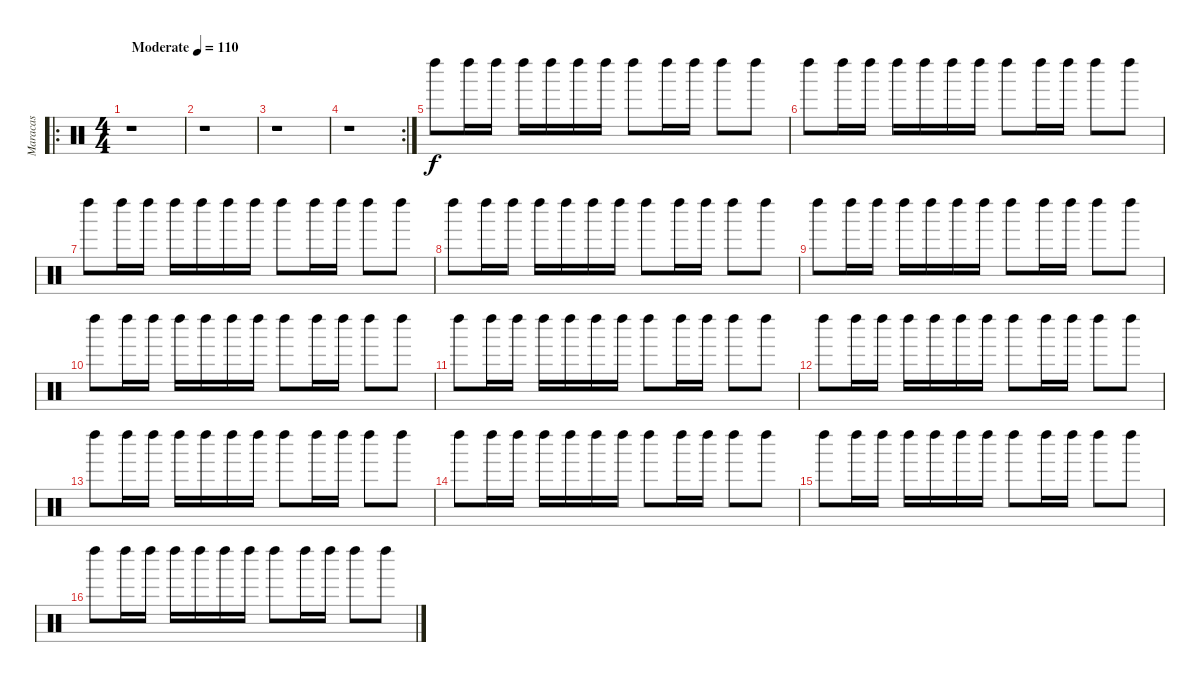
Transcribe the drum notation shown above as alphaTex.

\track ("Maracas" "Maracas") {instrument percussion}
\staff {score}
\articulation defaults
\ro
\ts (4 4)
\tempo (110 "Moderate")
\clef neutral
\ks c
r.1{dy f} |
r.1 |
r.1 |
\rc 2
r.1 |
"Left Maraca (hit)".8 "Left Maraca (hit)".16 "Left Maraca (hit)".16 "Left Maraca (hit)".16 "Left Maraca (hit)".16 "Left Maraca (hit)".16 "Left Maraca (hit)".16 "Left Maraca (hit)".8 "Left Maraca (hit)".16 "Left Maraca (hit)".16 "Left Maraca (hit)".8 "Left Maraca (hit)".8 |
"Left Maraca (hit)".8 "Left Maraca (hit)".16 "Left Maraca (hit)".16 "Left Maraca (hit)".16 "Left Maraca (hit)".16 "Left Maraca (hit)".16 "Left Maraca (hit)".16 "Left Maraca (hit)".8 "Left Maraca (hit)".16 "Left Maraca (hit)".16 "Left Maraca (hit)".8 "Left Maraca (hit)".8 |
"Left Maraca (hit)".8 "Left Maraca (hit)".16 "Left Maraca (hit)".16 "Left Maraca (hit)".16 "Left Maraca (hit)".16 "Left Maraca (hit)".16 "Left Maraca (hit)".16 "Left Maraca (hit)".8 "Left Maraca (hit)".16 "Left Maraca (hit)".16 "Left Maraca (hit)".8 "Left Maraca (hit)".8 |
"Left Maraca (hit)".8 "Left Maraca (hit)".16 "Left Maraca (hit)".16 "Left Maraca (hit)".16 "Left Maraca (hit)".16 "Left Maraca (hit)".16 "Left Maraca (hit)".16 "Left Maraca (hit)".8 "Left Maraca (hit)".16 "Left Maraca (hit)".16 "Left Maraca (hit)".8 "Left Maraca (hit)".8 |
"Left Maraca (hit)".8 "Left Maraca (hit)".16 "Left Maraca (hit)".16 "Left Maraca (hit)".16 "Left Maraca (hit)".16 "Left Maraca (hit)".16 "Left Maraca (hit)".16 "Left Maraca (hit)".8 "Left Maraca (hit)".16 "Left Maraca (hit)".16 "Left Maraca (hit)".8 "Left Maraca (hit)".8 |
"Left Maraca (hit)".8 "Left Maraca (hit)".16 "Left Maraca (hit)".16 "Left Maraca (hit)".16 "Left Maraca (hit)".16 "Left Maraca (hit)".16 "Left Maraca (hit)".16 "Left Maraca (hit)".8 "Left Maraca (hit)".16 "Left Maraca (hit)".16 "Left Maraca (hit)".8 "Left Maraca (hit)".8 |
"Left Maraca (hit)".8 "Left Maraca (hit)".16 "Left Maraca (hit)".16 "Left Maraca (hit)".16 "Left Maraca (hit)".16 "Left Maraca (hit)".16 "Left Maraca (hit)".16 "Left Maraca (hit)".8 "Left Maraca (hit)".16 "Left Maraca (hit)".16 "Left Maraca (hit)".8 "Left Maraca (hit)".8 |
"Left Maraca (hit)".8 "Left Maraca (hit)".16 "Left Maraca (hit)".16 "Left Maraca (hit)".16 "Left Maraca (hit)".16 "Left Maraca (hit)".16 "Left Maraca (hit)".16 "Left Maraca (hit)".8 "Left Maraca (hit)".16 "Left Maraca (hit)".16 "Left Maraca (hit)".8 "Left Maraca (hit)".8 |
"Left Maraca (hit)".8 "Left Maraca (hit)".16 "Left Maraca (hit)".16 "Left Maraca (hit)".16 "Left Maraca (hit)".16 "Left Maraca (hit)".16 "Left Maraca (hit)".16 "Left Maraca (hit)".8 "Left Maraca (hit)".16 "Left Maraca (hit)".16 "Left Maraca (hit)".8 "Left Maraca (hit)".8 |
"Left Maraca (hit)".8 "Left Maraca (hit)".16 "Left Maraca (hit)".16 "Left Maraca (hit)".16 "Left Maraca (hit)".16 "Left Maraca (hit)".16 "Left Maraca (hit)".16 "Left Maraca (hit)".8 "Left Maraca (hit)".16 "Left Maraca (hit)".16 "Left Maraca (hit)".8 "Left Maraca (hit)".8 |
"Left Maraca (hit)".8 "Left Maraca (hit)".16 "Left Maraca (hit)".16 "Left Maraca (hit)".16 "Left Maraca (hit)".16 "Left Maraca (hit)".16 "Left Maraca (hit)".16 "Left Maraca (hit)".8 "Left Maraca (hit)".16 "Left Maraca (hit)".16 "Left Maraca (hit)".8 "Left Maraca (hit)".8 |
"Left Maraca (hit)".8 "Left Maraca (hit)".16 "Left Maraca (hit)".16 "Left Maraca (hit)".16 "Left Maraca (hit)".16 "Left Maraca (hit)".16 "Left Maraca (hit)".16 "Left Maraca (hit)".8 "Left Maraca (hit)".16 "Left Maraca (hit)".16 "Left Maraca (hit)".8 "Left Maraca (hit)".8
